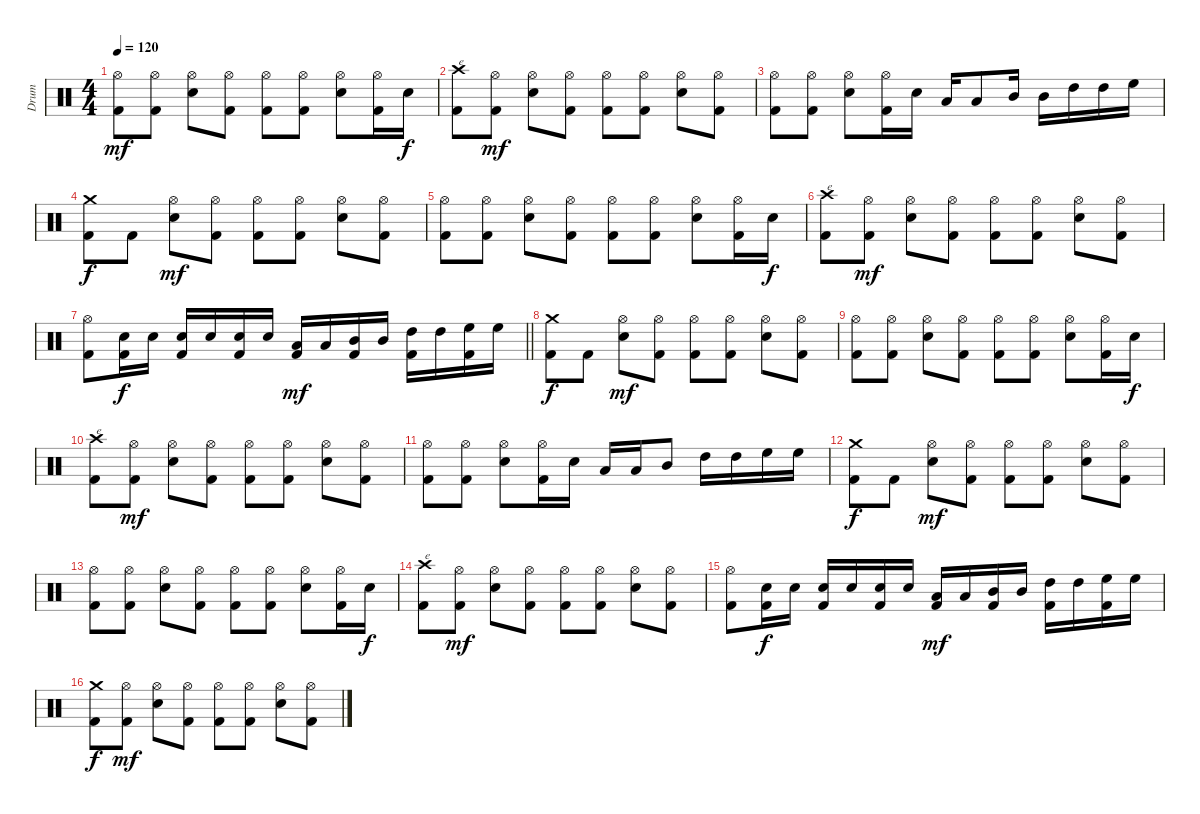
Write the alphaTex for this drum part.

\track ("Drum" "Drum") {instrument percussion}
\staff {score}
\articulation defaults
\ts (4 4)
\tempo 120
\clef neutral
\ks c
("Hi-Hat (open)" "Kick (hit) 2").8{dy mf} ("Hi-Hat (open)" "Kick (hit) 2").8 ("Hi-Hat (open)" "Snare (hit) 2").8 ("Hi-Hat (open)" "Kick (hit) 2").8 ("Hi-Hat (open)" "Kick (hit) 2").8 ("Hi-Hat (open)" "Kick (hit) 2").8 ("Hi-Hat (open)" "Snare (hit) 2").8 ("Hi-Hat (open)" "Kick (hit) 2").16 "Snare (hit) 2".16{dy f} |
("Crash high (hit)" "Kick (hit) 2").8{txt "e"} ("Hi-Hat (open)" "Kick (hit) 2").8{dy mf} ("Hi-Hat (open)" "Snare (hit) 2").8 ("Hi-Hat (open)" "Kick (hit) 2").8 ("Hi-Hat (open)" "Kick (hit) 2").8 ("Hi-Hat (open)" "Kick (hit) 2").8 ("Hi-Hat (open)" "Snare (hit) 2").8 ("Hi-Hat (open)" "Kick (hit) 2").8 |
("Hi-Hat (open)" "Kick (hit) 2").8 ("Hi-Hat (open)" "Kick (hit) 2").8 ("Hi-Hat (open)" "Snare (hit) 2").8 ("Hi-Hat (open)" "Kick (hit) 2").16 "Snare (hit) 2".16 "Low Tom (hit)".16 "Low Tom (hit)".8 "Mid Tom (hit)".16 "Mid Tom (hit)".16 "High Tom (hit)".16 "High Tom (hit)".16 "High Floor Tom (hit)".16 |
("Crash medium (hit)" "Kick (hit) 2").8{dy f} "Kick (hit) 2".8 ("Hi-Hat (open)" "Snare (hit) 2").8{dy mf} ("Hi-Hat (open)" "Kick (hit) 2").8 ("Hi-Hat (open)" "Kick (hit) 2").8 ("Hi-Hat (open)" "Kick (hit) 2").8 ("Hi-Hat (open)" "Snare (hit) 2").8 ("Hi-Hat (open)" "Kick (hit) 2").8 |
("Hi-Hat (open)" "Kick (hit) 2").8 ("Hi-Hat (open)" "Kick (hit) 2").8 ("Hi-Hat (open)" "Snare (hit) 2").8 ("Hi-Hat (open)" "Kick (hit) 2").8 ("Hi-Hat (open)" "Kick (hit) 2").8 ("Hi-Hat (open)" "Kick (hit) 2").8 ("Hi-Hat (open)" "Snare (hit) 2").8 ("Hi-Hat (open)" "Kick (hit) 2").16 "Snare (hit) 2".16{dy f} |
("Crash high (hit)" "Kick (hit) 2").8{txt "e"} ("Hi-Hat (open)" "Kick (hit) 2").8{dy mf} ("Hi-Hat (open)" "Snare (hit) 2").8 ("Hi-Hat (open)" "Kick (hit) 2").8 ("Hi-Hat (open)" "Kick (hit) 2").8 ("Hi-Hat (open)" "Kick (hit) 2").8 ("Hi-Hat (open)" "Snare (hit) 2").8 ("Hi-Hat (open)" "Kick (hit) 2").8 |
\barLineRight lightlight
("Hi-Hat (open)" "Kick (hit) 2").8 ("Snare (hit) 2" "Kick (hit) 2").16{dy f} "Snare (hit) 2".16 ("Snare (hit) 2" "Kick (hit) 2").16 "Snare (hit) 2".16 ("Snare (hit) 2" "Kick (hit) 2").16 "Snare (hit) 2".16 ("Low Tom (hit)" "Kick (hit) 2").16{dy mf} "Low Tom (hit)".16 ("Mid Tom (hit)" "Kick (hit) 2").16 "Mid Tom (hit)".16 ("High Tom (hit)" "Kick (hit) 2").16 "High Tom (hit)".16 ("High Floor Tom (hit)" "Kick (hit) 2").16 "High Floor Tom (hit)".16 |
("Crash medium (hit)" "Kick (hit) 2").8{dy f} "Kick (hit) 2".8 ("Hi-Hat (open)" "Snare (hit) 2").8{dy mf} ("Hi-Hat (open)" "Kick (hit) 2").8 ("Hi-Hat (open)" "Kick (hit) 2").8 ("Hi-Hat (open)" "Kick (hit) 2").8 ("Hi-Hat (open)" "Snare (hit) 2").8 ("Hi-Hat (open)" "Kick (hit) 2").8 |
("Hi-Hat (open)" "Kick (hit) 2").8 ("Hi-Hat (open)" "Kick (hit) 2").8 ("Hi-Hat (open)" "Snare (hit) 2").8 ("Hi-Hat (open)" "Kick (hit) 2").8 ("Hi-Hat (open)" "Kick (hit) 2").8 ("Hi-Hat (open)" "Kick (hit) 2").8 ("Hi-Hat (open)" "Snare (hit) 2").8 ("Hi-Hat (open)" "Kick (hit) 2").16 "Snare (hit) 2".16{dy f} |
("Crash high (hit)" "Kick (hit) 2").8{txt "e"} ("Hi-Hat (open)" "Kick (hit) 2").8{dy mf} ("Hi-Hat (open)" "Snare (hit) 2").8 ("Hi-Hat (open)" "Kick (hit) 2").8 ("Hi-Hat (open)" "Kick (hit) 2").8 ("Hi-Hat (open)" "Kick (hit) 2").8 ("Hi-Hat (open)" "Snare (hit) 2").8 ("Hi-Hat (open)" "Kick (hit) 2").8 |
("Hi-Hat (open)" "Kick (hit) 2").8 ("Hi-Hat (open)" "Kick (hit) 2").8 ("Hi-Hat (open)" "Snare (hit) 2").8 ("Hi-Hat (open)" "Kick (hit) 2").16 "Snare (hit) 2".16 "Low Tom (hit)".16 "Low Tom (hit)".16 "Mid Tom (hit)".8 "High Tom (hit)".16 "High Tom (hit)".16 "High Floor Tom (hit)".16 "High Floor Tom (hit)".16 |
("Crash medium (hit)" "Kick (hit) 2").8{dy f} "Kick (hit) 2".8 ("Hi-Hat (open)" "Snare (hit) 2").8{dy mf} ("Hi-Hat (open)" "Kick (hit) 2").8 ("Hi-Hat (open)" "Kick (hit) 2").8 ("Hi-Hat (open)" "Kick (hit) 2").8 ("Hi-Hat (open)" "Snare (hit) 2").8 ("Hi-Hat (open)" "Kick (hit) 2").8 |
("Hi-Hat (open)" "Kick (hit) 2").8 ("Hi-Hat (open)" "Kick (hit) 2").8 ("Hi-Hat (open)" "Snare (hit) 2").8 ("Hi-Hat (open)" "Kick (hit) 2").8 ("Hi-Hat (open)" "Kick (hit) 2").8 ("Hi-Hat (open)" "Kick (hit) 2").8 ("Hi-Hat (open)" "Snare (hit) 2").8 ("Hi-Hat (open)" "Kick (hit) 2").16 "Snare (hit) 2".16{dy f} |
("Crash high (hit)" "Kick (hit) 2").8{txt "e"} ("Hi-Hat (open)" "Kick (hit) 2").8{dy mf} ("Hi-Hat (open)" "Snare (hit) 2").8 ("Hi-Hat (open)" "Kick (hit) 2").8 ("Hi-Hat (open)" "Kick (hit) 2").8 ("Hi-Hat (open)" "Kick (hit) 2").8 ("Hi-Hat (open)" "Snare (hit) 2").8 ("Hi-Hat (open)" "Kick (hit) 2").8 |
("Hi-Hat (open)" "Kick (hit) 2").8 ("Snare (hit) 2" "Kick (hit) 2").16{dy f} "Snare (hit) 2".16 ("Snare (hit) 2" "Kick (hit) 2").16 "Snare (hit) 2".16 ("Snare (hit) 2" "Kick (hit) 2").16 "Snare (hit) 2".16 ("Low Tom (hit)" "Kick (hit) 2").16{dy mf} "Low Tom (hit)".16 ("Mid Tom (hit)" "Kick (hit) 2").16 "Mid Tom (hit)".16 ("High Tom (hit)" "Kick (hit) 2").16 "High Tom (hit)".16 ("High Floor Tom (hit)" "Kick (hit) 2").16 "High Floor Tom (hit)".16 |
("Crash medium (hit)" "Kick (hit) 2").8{dy f} ("Hi-Hat (open)" "Kick (hit) 2").8{dy mf} ("Hi-Hat (open)" "Snare (hit) 2").8 ("Hi-Hat (open)" "Kick (hit) 2").8 ("Hi-Hat (open)" "Kick (hit) 2").8 ("Hi-Hat (open)" "Kick (hit) 2").8 ("Hi-Hat (open)" "Snare (hit) 2").8 ("Hi-Hat (open)" "Kick (hit) 2").8
